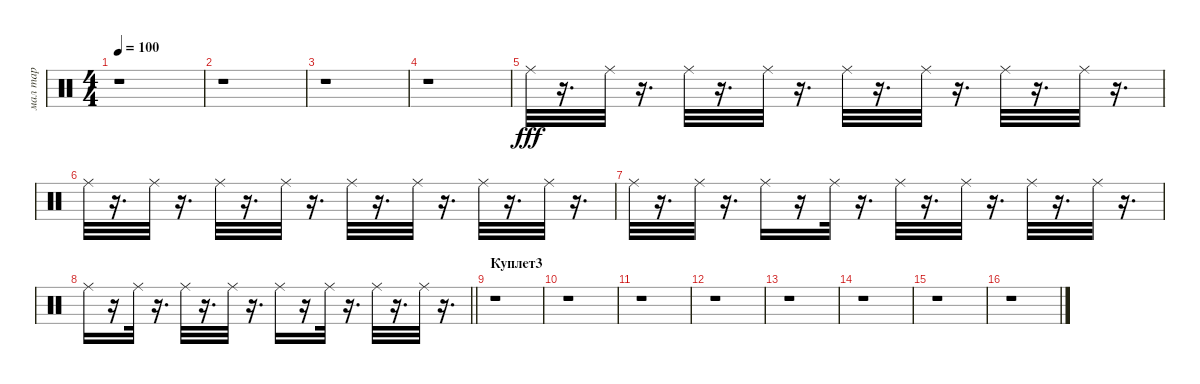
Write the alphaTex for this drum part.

\track ("мал тар" "мал тар") {instrument percussion}
\staff {score}
\articulation defaults
\ts (4 4)
\tempo 100
\clef neutral
\ks c
r.1{dy fff} |
r.1 |
r.1 |
r.1 |
"Ride (middle)".32 r.16{d} "Ride (middle)".32 r.16{d} "Ride (middle)".32 r.16{d} "Ride (middle)".32 r.16{d} "Ride (middle)".32 r.16{d} "Ride (middle)".32 r.16{d} "Ride (middle)".32 r.16{d} "Ride (middle)".32 r.16{d} |
"Ride (middle)".32 r.16{d} "Ride (middle)".32 r.16{d} "Ride (middle)".32 r.16{d} "Ride (middle)".32 r.16{d} "Ride (middle)".32 r.16{d} "Ride (middle)".32 r.16{d} "Ride (middle)".32 r.16{d} "Ride (middle)".32 r.16{d} |
"Ride (middle)".32 r.16{d} "Ride (middle)".32 r.16{d} "Ride (middle)".16 r.16 "Ride (middle)".32 r.16{d} "Ride (middle)".32 r.16{d} "Ride (middle)".32 r.16{d} "Ride (middle)".32 r.16{d} "Ride (middle)".32 r.16{d} |
\barLineRight lightlight "Ride (middle)".16
r.16 "Ride (middle)".32 r.16{d} "Ride (middle)".32 r.16{d} "Ride (middle)".32 r.16{d} "Ride (middle)".16 r.16 "Ride (middle)".32 r.16{d} "Ride (middle)".32 r.16{d} "Ride (middle)".32 r.16{d} |
\section ("" "Куплет3")
r.1 |
r.1 |
r.1 |
r.1 |
r.1 |
r.1 |
r.1 |
r.1
